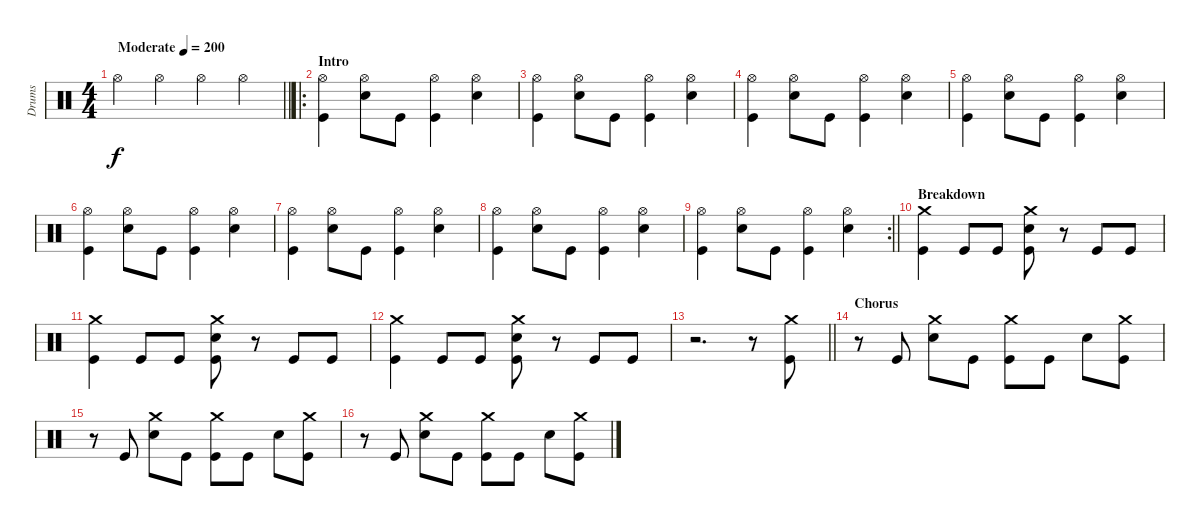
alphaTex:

\track ("Drums" "Drums") {instrument percussion}
\staff {score}
\articulation defaults
\ts (4 4)
\tempo (200 "Moderate")
\clef neutral
\barLineRight lightlight
\ks c "Hi-Hat (open)".4{dy f} "Hi-Hat (open)".4 "Hi-Hat (open)".4 "Hi-Hat (open)".4
|
\ro
\section ("" "Intro")
("Hi-Hat (open)" "Kick (hit)").4 ("Hi-Hat (open)" "Snare (hit) 2").8 "Kick (hit)".8 ("Hi-Hat (open)" "Kick (hit)").4 ("Hi-Hat (open)" "Snare (hit) 2").4 |
("Hi-Hat (open)" "Kick (hit)").4 ("Hi-Hat (open)" "Snare (hit) 2").8 "Kick (hit)".8 ("Hi-Hat (open)" "Kick (hit)").4 ("Hi-Hat (open)" "Snare (hit) 2").4 |
("Hi-Hat (open)" "Kick (hit)").4 ("Hi-Hat (open)" "Snare (hit) 2").8 "Kick (hit)".8 ("Hi-Hat (open)" "Kick (hit)").4 ("Hi-Hat (open)" "Snare (hit) 2").4 |
("Hi-Hat (open)" "Kick (hit)").4 ("Hi-Hat (open)" "Snare (hit) 2").8 "Kick (hit)".8 ("Hi-Hat (open)" "Kick (hit)").4 ("Hi-Hat (open)" "Snare (hit) 2").4 |
("Hi-Hat (open)" "Kick (hit)").4 ("Hi-Hat (open)" "Snare (hit) 2").8 "Kick (hit)".8 ("Hi-Hat (open)" "Kick (hit)").4 ("Hi-Hat (open)" "Snare (hit) 2").4 |
("Hi-Hat (open)" "Kick (hit)").4 ("Hi-Hat (open)" "Snare (hit) 2").8 "Kick (hit)".8 ("Hi-Hat (open)" "Kick (hit)").4 ("Hi-Hat (open)" "Snare (hit) 2").4 |
("Hi-Hat (open)" "Kick (hit)").4 ("Hi-Hat (open)" "Snare (hit) 2").8 "Kick (hit)".8 ("Hi-Hat (open)" "Kick (hit)").4 ("Hi-Hat (open)" "Snare (hit) 2").4 |
\rc 2
\barLineRight lightlight
("Hi-Hat (open)" "Kick (hit)").4 ("Hi-Hat (open)" "Snare (hit) 2").8 "Kick (hit)".8 ("Hi-Hat (open)" "Kick (hit)").4 ("Hi-Hat (open)" "Snare (hit) 2").4 |
\section ("" "Breakdown")
("Crash medium (hit)" "Kick (hit)").4 "Kick (hit)".8 "Kick (hit)".8 ("Crash medium (hit)" "Snare (hit) 2" "Kick (hit)").8 r.8 "Kick (hit)".8 "Kick (hit)".8 |
("Crash medium (hit)" "Kick (hit)").4 "Kick (hit)".8 "Kick (hit)".8 ("Crash medium (hit)" "Snare (hit) 2" "Kick (hit)").8 r.8 "Kick (hit)".8 "Kick (hit)".8 |
("Crash medium (hit)" "Kick (hit)").4 "Kick (hit)".8 "Kick (hit)".8 ("Crash medium (hit)" "Snare (hit) 2" "Kick (hit)").8 r.8 "Kick (hit)".8 "Kick (hit)".8 |
\barLineRight lightlight
r.2{d} r.8 ("Crash medium (hit)" "Kick (hit)").8 |
\section ("" "Chorus")
r.8 "Kick (hit)".8 ("Crash medium (hit)" "Snare (hit) 2").8 "Kick (hit)".8 ("Crash medium (hit)" "Kick (hit)").8 "Kick (hit)".8 "Snare (hit) 2".8 ("Crash medium (hit)" "Kick (hit)").8 |
r.8 "Kick (hit)".8 ("Crash medium (hit)" "Snare (hit) 2").8 "Kick (hit)".8 ("Crash medium (hit)" "Kick (hit)").8 "Kick (hit)".8 "Snare (hit) 2".8 ("Crash medium (hit)" "Kick (hit)").8 |
r.8 "Kick (hit)".8 ("Crash medium (hit)" "Snare (hit) 2").8 "Kick (hit)".8 ("Crash medium (hit)" "Kick (hit)").8 "Kick (hit)".8 "Snare (hit) 2".8 ("Crash medium (hit)" "Kick (hit)").8
